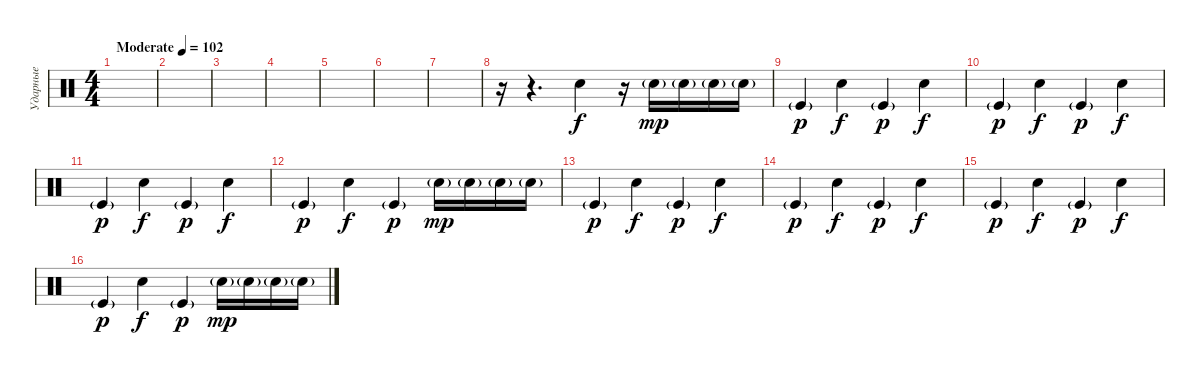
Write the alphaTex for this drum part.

\track ("Ударные" "Ударные") {instrument percussion}
\staff {score}
\articulation defaults
\ts (4 4)
\tempo (102 "Moderate")
\clef neutral
\ks c
|
|
|
|
|
|
|
r.16 r.4{d} "Electric Snare (hit)".4 r.16 "Electric Snare (hit)"{g}.16{dy mp} "Electric Snare (hit)"{g}.16 "Electric Snare (hit)"{g}.16 "Electric Snare (hit)"{g}.16 |
"Kick (hit)"{g}.4{dy p} "Electric Snare (hit)".4{dy f} "Kick (hit)"{g}.4{dy p} "Electric Snare (hit)".4{dy f} |
"Kick (hit)"{g}.4{dy p} "Electric Snare (hit)".4{dy f} "Kick (hit)"{g}.4{dy p} "Electric Snare (hit)".4{dy f} |
"Kick (hit)"{g}.4{dy p} "Electric Snare (hit)".4{dy f} "Kick (hit)"{g}.4{dy p} "Electric Snare (hit)".4{dy f} |
"Kick (hit)"{g}.4{dy p} "Electric Snare (hit)".4{dy f} "Kick (hit)"{g}.4{dy p} "Electric Snare (hit)"{g}.16{dy mp} "Electric Snare (hit)"{g}.16 "Electric Snare (hit)"{g}.16 "Electric Snare (hit)"{g}.16 |
"Kick (hit)"{g}.4{dy p} "Electric Snare (hit)".4{dy f} "Kick (hit)"{g}.4{dy p} "Electric Snare (hit)".4{dy f} |
"Kick (hit)"{g}.4{dy p} "Electric Snare (hit)".4{dy f} "Kick (hit)"{g}.4{dy p} "Electric Snare (hit)".4{dy f} |
"Kick (hit)"{g}.4{dy p} "Electric Snare (hit)".4{dy f} "Kick (hit)"{g}.4{dy p} "Electric Snare (hit)".4{dy f} |
"Kick (hit)"{g}.4{dy p} "Electric Snare (hit)".4{dy f} "Kick (hit)"{g}.4{dy p} "Electric Snare (hit)"{g}.16{dy mp} "Electric Snare (hit)"{g}.16 "Electric Snare (hit)"{g}.16 "Electric Snare (hit)"{g}.16
